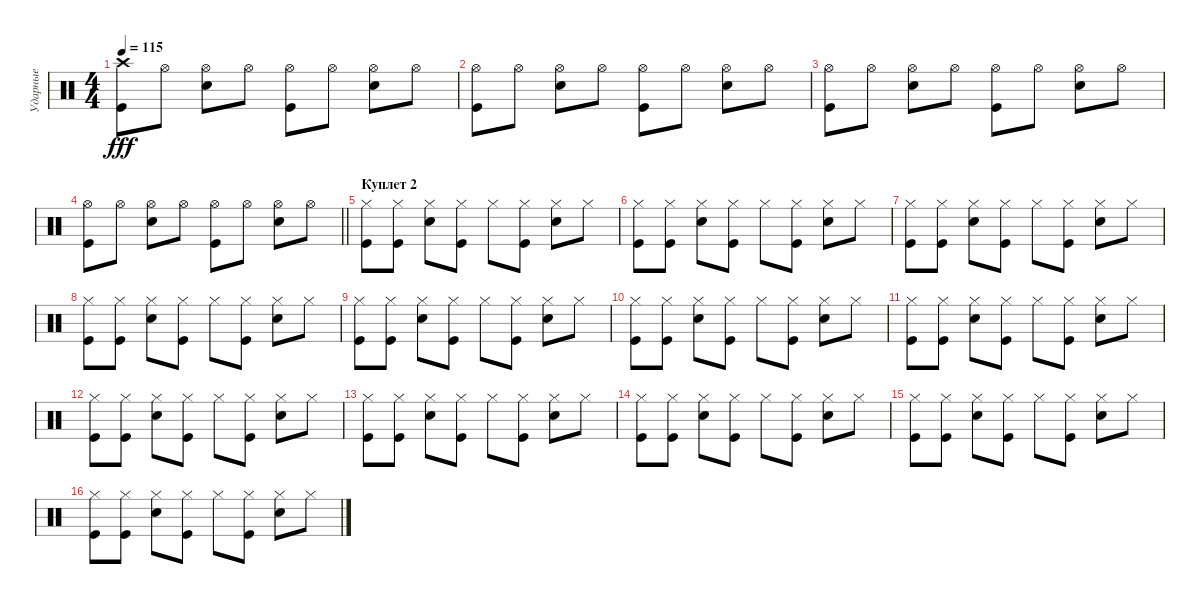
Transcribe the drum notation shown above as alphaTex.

\track ("Ударные" "Ударные") {instrument percussion}
\staff {score}
\articulation defaults
\ts (4 4)
\tempo 115
\clef neutral
\ks c
("Crash high (hit)" "Kick (hit)").8{dy fff} "Hi-Hat (open)".8 ("Hi-Hat (open)" "Electric Snare (hit)").8 "Hi-Hat (open)".8 ("Hi-Hat (open)" "Kick (hit)").8 "Hi-Hat (open)".8 ("Hi-Hat (open)" "Electric Snare (hit)").8 "Hi-Hat (open)".8 |
("Hi-Hat (open)" "Kick (hit)").8 "Hi-Hat (open)".8 ("Hi-Hat (open)" "Electric Snare (hit)").8 "Hi-Hat (open)".8 ("Hi-Hat (open)" "Kick (hit)").8 "Hi-Hat (open)".8 ("Hi-Hat (open)" "Electric Snare (hit)").8 "Hi-Hat (open)".8 |
("Hi-Hat (open)" "Kick (hit)").8 "Hi-Hat (open)".8 ("Hi-Hat (open)" "Electric Snare (hit)").8 "Hi-Hat (open)".8 ("Hi-Hat (open)" "Kick (hit)").8 "Hi-Hat (open)".8 ("Hi-Hat (open)" "Electric Snare (hit)").8 "Hi-Hat (open)".8 |
\barLineRight lightlight
("Hi-Hat (open)" "Kick (hit)").8 "Hi-Hat (open)".8 ("Hi-Hat (open)" "Electric Snare (hit)").8 "Hi-Hat (open)".8 ("Hi-Hat (open)" "Kick (hit)").8 "Hi-Hat (open)".8 ("Hi-Hat (open)" "Electric Snare (hit)").8 "Hi-Hat (open)".8 |
\section ("" "Куплет 2")
("Hi-Hat (closed)" "Kick (hit)").8 ("Hi-Hat (closed)" "Kick (hit)").8 ("Hi-Hat (closed)" "Electric Snare (hit)").8 ("Hi-Hat (closed)" "Kick (hit)").8 "Hi-Hat (closed)".8 ("Hi-Hat (closed)" "Kick (hit)").8 ("Hi-Hat (closed)" "Electric Snare (hit)").8 "Hi-Hat (closed)".8 |
("Hi-Hat (closed)" "Kick (hit)").8 ("Hi-Hat (closed)" "Kick (hit)").8 ("Hi-Hat (closed)" "Electric Snare (hit)").8 ("Hi-Hat (closed)" "Kick (hit)").8 "Hi-Hat (closed)".8 ("Hi-Hat (closed)" "Kick (hit)").8 ("Hi-Hat (closed)" "Electric Snare (hit)").8 "Hi-Hat (closed)".8 |
("Hi-Hat (closed)" "Kick (hit)").8 ("Hi-Hat (closed)" "Kick (hit)").8 ("Hi-Hat (closed)" "Electric Snare (hit)").8 ("Hi-Hat (closed)" "Kick (hit)").8 "Hi-Hat (closed)".8 ("Hi-Hat (closed)" "Kick (hit)").8 ("Hi-Hat (closed)" "Electric Snare (hit)").8 "Hi-Hat (closed)".8 |
("Hi-Hat (closed)" "Kick (hit)").8 ("Hi-Hat (closed)" "Kick (hit)").8 ("Hi-Hat (closed)" "Electric Snare (hit)").8 ("Hi-Hat (closed)" "Kick (hit)").8 "Hi-Hat (closed)".8 ("Hi-Hat (closed)" "Kick (hit)").8 ("Hi-Hat (closed)" "Electric Snare (hit)").8 "Hi-Hat (closed)".8 |
("Hi-Hat (closed)" "Kick (hit)").8 ("Hi-Hat (closed)" "Kick (hit)").8 ("Hi-Hat (closed)" "Electric Snare (hit)").8 ("Hi-Hat (closed)" "Kick (hit)").8 "Hi-Hat (closed)".8 ("Hi-Hat (closed)" "Kick (hit)").8 ("Hi-Hat (closed)" "Electric Snare (hit)").8 "Hi-Hat (closed)".8 |
("Hi-Hat (closed)" "Kick (hit)").8 ("Hi-Hat (closed)" "Kick (hit)").8 ("Hi-Hat (closed)" "Electric Snare (hit)").8 ("Hi-Hat (closed)" "Kick (hit)").8 "Hi-Hat (closed)".8 ("Hi-Hat (closed)" "Kick (hit)").8 ("Hi-Hat (closed)" "Electric Snare (hit)").8 "Hi-Hat (closed)".8 |
("Hi-Hat (closed)" "Kick (hit)").8 ("Hi-Hat (closed)" "Kick (hit)").8 ("Hi-Hat (closed)" "Electric Snare (hit)").8 ("Hi-Hat (closed)" "Kick (hit)").8 "Hi-Hat (closed)".8 ("Hi-Hat (closed)" "Kick (hit)").8 ("Hi-Hat (closed)" "Electric Snare (hit)").8 "Hi-Hat (closed)".8 |
("Hi-Hat (closed)" "Kick (hit)").8 ("Hi-Hat (closed)" "Kick (hit)").8 ("Hi-Hat (closed)" "Electric Snare (hit)").8 ("Hi-Hat (closed)" "Kick (hit)").8 "Hi-Hat (closed)".8 ("Hi-Hat (closed)" "Kick (hit)").8 ("Hi-Hat (closed)" "Electric Snare (hit)").8 "Hi-Hat (closed)".8 |
("Hi-Hat (closed)" "Kick (hit)").8 ("Hi-Hat (closed)" "Kick (hit)").8 ("Hi-Hat (closed)" "Electric Snare (hit)").8 ("Hi-Hat (closed)" "Kick (hit)").8 "Hi-Hat (closed)".8 ("Hi-Hat (closed)" "Kick (hit)").8 ("Hi-Hat (closed)" "Electric Snare (hit)").8 "Hi-Hat (closed)".8 |
("Hi-Hat (closed)" "Kick (hit)").8 ("Hi-Hat (closed)" "Kick (hit)").8 ("Hi-Hat (closed)" "Electric Snare (hit)").8 ("Hi-Hat (closed)" "Kick (hit)").8 "Hi-Hat (closed)".8 ("Hi-Hat (closed)" "Kick (hit)").8 ("Hi-Hat (closed)" "Electric Snare (hit)").8 "Hi-Hat (closed)".8 |
("Hi-Hat (closed)" "Kick (hit)").8 ("Hi-Hat (closed)" "Kick (hit)").8 ("Hi-Hat (closed)" "Electric Snare (hit)").8 ("Hi-Hat (closed)" "Kick (hit)").8 "Hi-Hat (closed)".8 ("Hi-Hat (closed)" "Kick (hit)").8 ("Hi-Hat (closed)" "Electric Snare (hit)").8 "Hi-Hat (closed)".8 |
("Hi-Hat (closed)" "Kick (hit)").8 ("Hi-Hat (closed)" "Kick (hit)").8 ("Hi-Hat (closed)" "Electric Snare (hit)").8 ("Hi-Hat (closed)" "Kick (hit)").8 "Hi-Hat (closed)".8 ("Hi-Hat (closed)" "Kick (hit)").8 ("Hi-Hat (closed)" "Electric Snare (hit)").8 "Hi-Hat (closed)".8
